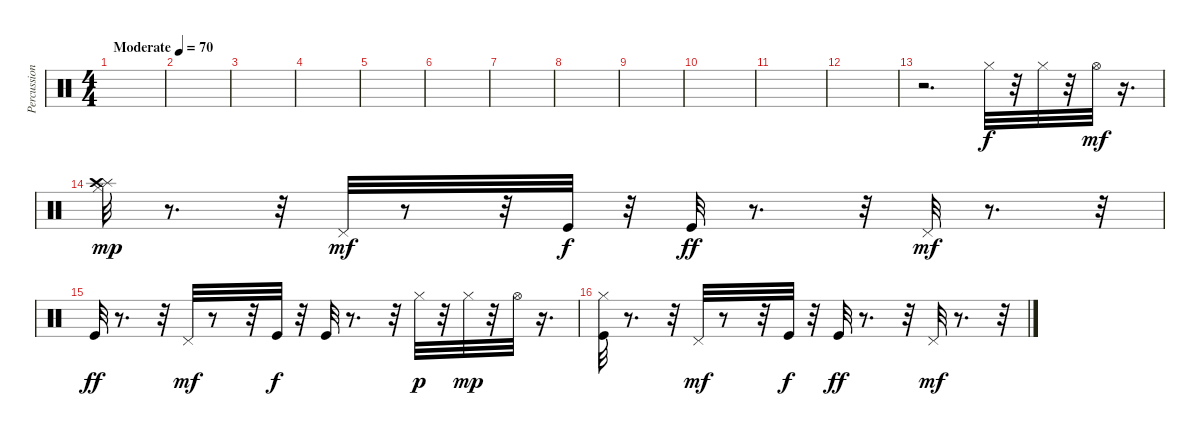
\track ("Percussion" "Percussion") {instrument percussion}
\staff {score}
\articulation defaults
\ts (4 4)
\tempo (70 "Moderate")
\clef neutral
\ks c
|
|
|
|
|
|
|
|
|
|
|
|
r.2{d} "Hi-Hat (closed)".32 r.32 "Hi-Hat (closed)".32 r.32 "Hi-Hat (open)".32{dy mf} r.16{d} |
("Hi-Hat (closed)" "Splash (hit)" "Crash high (hit)").32{dy mp} r.8{d} r.32 "Pedal Hi-Hat (hit)".32{dy mf} r.8 r.32 "Kick (hit)".32{dy f} r.32 "Kick (hit)".32{dy ff} r.8{d} r.32 "Pedal Hi-Hat (hit)".32{dy mf} r.8{d} r.32 |
"Kick (hit)".32{dy ff} r.8{d} r.32 "Pedal Hi-Hat (hit)".32{dy mf} r.8 r.32 "Kick (hit)".32{dy f} r.32 "Kick (hit)".32 r.8{d} r.32 "Hi-Hat (closed)".32{dy p} r.32 "Hi-Hat (closed)".32{dy mp} r.32 "Hi-Hat (open)".32 r.16{d} |
("Kick (hit)" "Hi-Hat (closed)").32 r.8{d} r.32 "Pedal Hi-Hat (hit)".32{dy mf} r.8 r.32 "Kick (hit)".32{dy f} r.32 "Kick (hit)".32{dy ff} r.8{d} r.32 "Pedal Hi-Hat (hit)".32{dy mf} r.8{d} r.32
